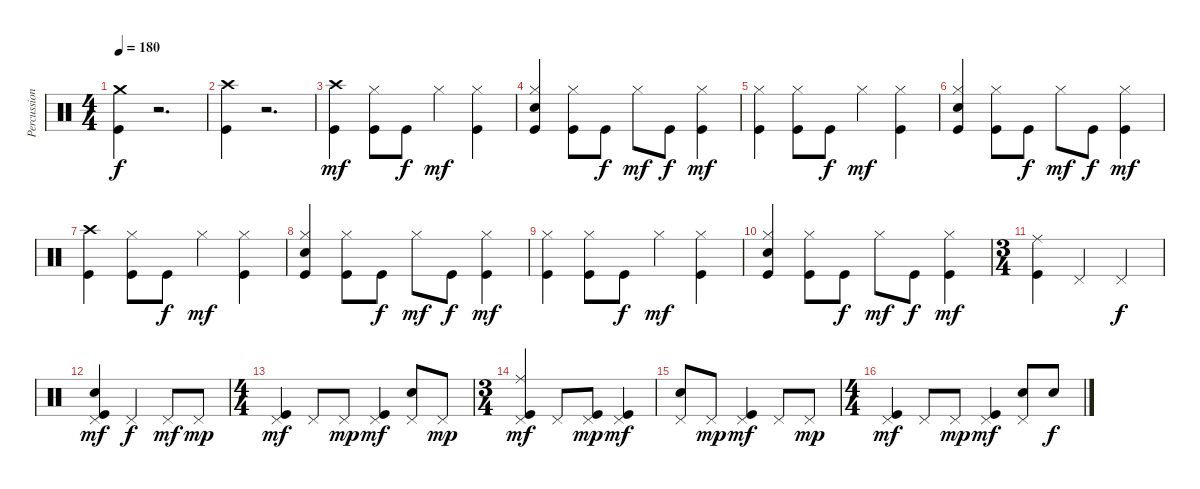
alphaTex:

\track ("Percussion" "Percussion") {instrument percussion}
\staff {score}
\articulation defaults
\ts (4 4)
\tempo 180
\clef neutral
\ks c
("Crash medium (hit)" "Kick (hit)").4{dy f} r.2{d} |
("Crash high (hit)" "Kick (hit)").4 r.2{d} |
("Crash high (hit)" "Kick (hit)").4{dy mf} ("Hi-Hat (closed)" "Kick (hit)").8 "Kick (hit)".8{dy f} "Hi-Hat (closed)".4{dy mf} ("Hi-Hat (closed)" "Kick (hit)").4 |
("Hi-Hat (closed)" "Snare (hit) 2" "Kick (hit)").4 ("Hi-Hat (closed)" "Kick (hit)").8 "Kick (hit)".8{dy f} "Hi-Hat (closed)".8{dy mf} "Kick (hit)".8{dy f} ("Hi-Hat (closed)" "Kick (hit)").4{dy mf} |
("Hi-Hat (closed)" "Kick (hit)").4 ("Hi-Hat (closed)" "Kick (hit)").8 "Kick (hit)".8{dy f} "Hi-Hat (closed)".4{dy mf} ("Hi-Hat (closed)" "Kick (hit)").4 |
("Hi-Hat (closed)" "Snare (hit) 2" "Kick (hit)").4 ("Hi-Hat (closed)" "Kick (hit)").8 "Kick (hit)".8{dy f} "Hi-Hat (closed)".8{dy mf} "Kick (hit)".8{dy f} ("Hi-Hat (closed)" "Kick (hit)").4{dy mf} |
("Crash high (hit)" "Kick (hit)").4 ("Hi-Hat (closed)" "Kick (hit)").8 "Kick (hit)".8{dy f} "Hi-Hat (closed)".4{dy mf} ("Hi-Hat (closed)" "Kick (hit)").4 |
("Hi-Hat (closed)" "Snare (hit) 2" "Kick (hit)").4 ("Hi-Hat (closed)" "Kick (hit)").8 "Kick (hit)".8{dy f} "Hi-Hat (closed)".8{dy mf} "Kick (hit)".8{dy f} ("Hi-Hat (closed)" "Kick (hit)").4{dy mf} |
("Hi-Hat (closed)" "Kick (hit)").4 ("Hi-Hat (closed)" "Kick (hit)").8 "Kick (hit)".8{dy f} "Hi-Hat (closed)".4{dy mf} ("Hi-Hat (closed)" "Kick (hit)").4 |
("Hi-Hat (closed)" "Snare (hit) 2" "Kick (hit)").4 ("Hi-Hat (closed)" "Kick (hit)").8 "Kick (hit)".8{dy f} "Hi-Hat (closed)".8{dy mf} "Kick (hit)".8{dy f} ("Hi-Hat (closed)" "Kick (hit)").4{dy mf} |
\ts (3 4)
("Ride (middle)" "Kick (hit)").4 "Pedal Hi-Hat (hit)".4 "Pedal Hi-Hat (hit)".4{dy f} |
("Pedal Hi-Hat (hit)" "Snare (hit) 2" "Kick (hit)").4{dy mf} "Pedal Hi-Hat (hit)".4{dy f} "Pedal Hi-Hat (hit)".8{dy mf} "Pedal Hi-Hat (hit)".8{dy mp} |
\ts (4 4)
("Pedal Hi-Hat (hit)" "Kick (hit)").4{dy mf} "Pedal Hi-Hat (hit)".8 "Pedal Hi-Hat (hit)".8{dy mp} ("Pedal Hi-Hat (hit)" "Kick (hit)").4{dy mf} ("Pedal Hi-Hat (hit)" "Snare (hit) 2").8 "Pedal Hi-Hat (hit)".8{dy mp} |
\ts (3 4)
("Ride (middle)" "Pedal Hi-Hat (hit)" "Kick (hit)").4{dy mf} "Pedal Hi-Hat (hit)".8 ("Pedal Hi-Hat (hit)" "Kick (hit)").8{dy mp} ("Pedal Hi-Hat (hit)" "Kick (hit)").4{dy mf} |
("Pedal Hi-Hat (hit)" "Snare (hit) 2").8 "Pedal Hi-Hat (hit)".8{dy mp} ("Pedal Hi-Hat (hit)" "Kick (hit)").4{dy mf} "Pedal Hi-Hat (hit)".8 "Pedal Hi-Hat (hit)".8{dy mp} |
\ts (4 4)
("Pedal Hi-Hat (hit)" "Kick (hit)").4{dy mf} "Pedal Hi-Hat (hit)".8 "Pedal Hi-Hat (hit)".8{dy mp} ("Pedal Hi-Hat (hit)" "Kick (hit)").4{dy mf} ("Pedal Hi-Hat (hit)" "Snare (hit) 2").8 "Snare (hit) 2".8{dy f}
